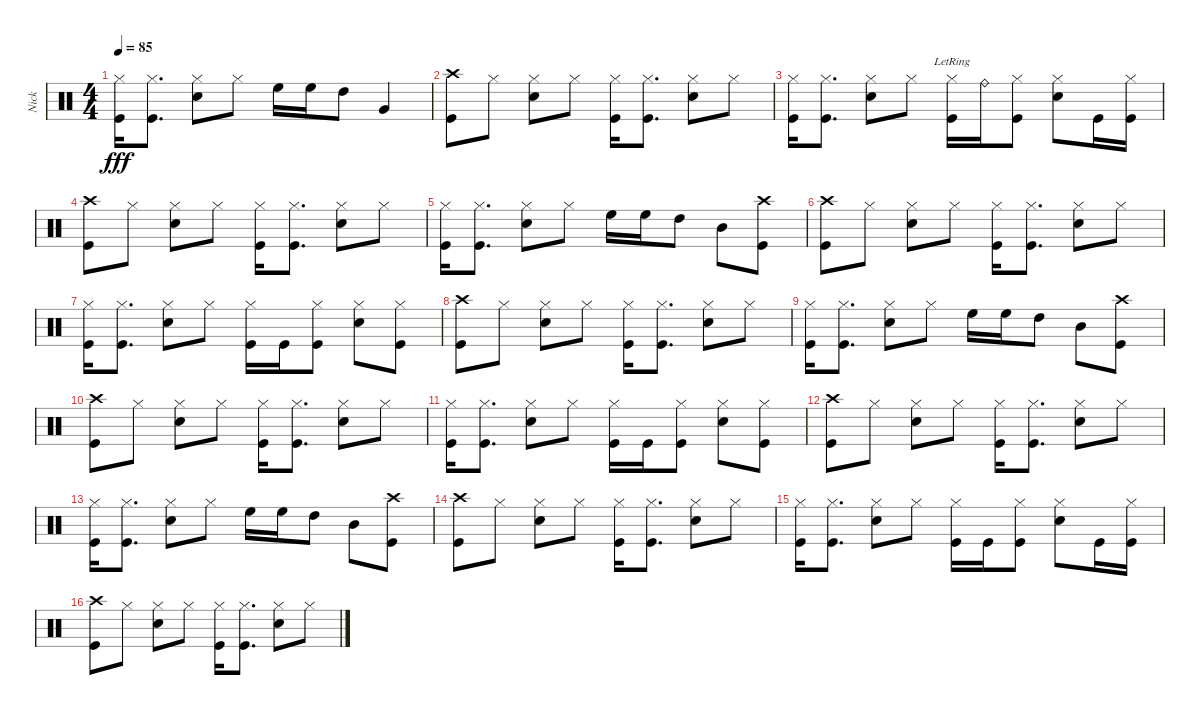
\track ("Nick" "Nick") {instrument percussion}
\staff {score}
\articulation defaults
\ts (4 4)
\tempo 85
\clef neutral
\ks c
("Kick (hit)" "Hi-Hat (closed)").16{dy fff} ("Kick (hit)" "Hi-Hat (closed)").8{d} ("Hi-Hat (closed)" "Snare (hit) 2").8 "Hi-Hat (closed)".8 "High Floor Tom (hit)".16 "High Floor Tom (hit)".16 "High Tom (hit)".8 "Very Low Tom (hit)".4 |
("Kick (hit)" "Crash high (hit)").8 "Hi-Hat (closed)".8 ("Hi-Hat (closed)" "Snare (hit) 2").8 "Hi-Hat (closed)".8 ("Kick (hit)" "Hi-Hat (closed)").16 ("Kick (hit)" "Hi-Hat (closed)").8{d} ("Hi-Hat (closed)" "Snare (hit) 2").8 "Hi-Hat (closed)".8 |
("Kick (hit)" "Hi-Hat (closed)").16 ("Kick (hit)" "Hi-Hat (closed)").8{d} ("Hi-Hat (closed)" "Snare (hit) 2").8 "Hi-Hat (closed)".8 ("Kick (hit)" "Hi-Hat (closed)"{lr}).16 "Ride (bell)".16 ("Kick (hit)" "Hi-Hat (closed)").8 ("Hi-Hat (closed)" "Snare (hit) 2").8 "Kick (hit)".16 ("Kick (hit)" "Hi-Hat (closed)").16 |
("Kick (hit)" "Crash high (hit)").8 "Hi-Hat (closed)".8 ("Hi-Hat (closed)" "Snare (hit) 2").8 "Hi-Hat (closed)".8 ("Kick (hit)" "Hi-Hat (closed)").16 ("Kick (hit)" "Hi-Hat (closed)").8{d} ("Hi-Hat (closed)" "Snare (hit) 2").8 "Hi-Hat (closed)".8 |
("Kick (hit)" "Hi-Hat (closed)").16 ("Kick (hit)" "Hi-Hat (closed)").8{d} ("Hi-Hat (closed)" "Snare (hit) 2").8 "Hi-Hat (closed)".8 "High Floor Tom (hit)".16 "High Floor Tom (hit)".16 "High Tom (hit)".8 "Mid Tom (hit)".8 ("Kick (hit)" "Crash high (hit)").8 |
("Kick (hit)" "Crash high (hit)").8 "Hi-Hat (closed)".8 ("Hi-Hat (closed)" "Snare (hit) 2").8 "Hi-Hat (closed)".8 ("Kick (hit)" "Hi-Hat (closed)").16 ("Kick (hit)" "Hi-Hat (closed)").8{d} ("Hi-Hat (closed)" "Snare (hit) 2").8 "Hi-Hat (closed)".8 |
("Kick (hit)" "Hi-Hat (closed)").16 ("Kick (hit)" "Hi-Hat (closed)").8{d} ("Hi-Hat (closed)" "Snare (hit) 2").8 "Hi-Hat (closed)".8 ("Kick (hit)" "Hi-Hat (closed)").16 "Kick (hit)".16 ("Kick (hit)" "Hi-Hat (closed)").8 ("Hi-Hat (closed)" "Snare (hit) 2").8 ("Kick (hit)" "Hi-Hat (closed)").8 |
("Kick (hit)" "Crash high (hit)").8 "Hi-Hat (closed)".8 ("Hi-Hat (closed)" "Snare (hit) 2").8 "Hi-Hat (closed)".8 ("Kick (hit)" "Hi-Hat (closed)").16 ("Kick (hit)" "Hi-Hat (closed)").8{d} ("Hi-Hat (closed)" "Snare (hit) 2").8 "Hi-Hat (closed)".8 |
("Kick (hit)" "Hi-Hat (closed)").16 ("Kick (hit)" "Hi-Hat (closed)").8{d} ("Hi-Hat (closed)" "Snare (hit) 2").8 "Hi-Hat (closed)".8 "High Floor Tom (hit)".16 "High Floor Tom (hit)".16 "High Tom (hit)".8 "Mid Tom (hit)".8 ("Kick (hit)" "Crash high (hit)").8 |
("Kick (hit)" "Crash high (hit)").8 "Hi-Hat (closed)".8 ("Hi-Hat (closed)" "Snare (hit) 2").8 "Hi-Hat (closed)".8 ("Kick (hit)" "Hi-Hat (closed)").16 ("Kick (hit)" "Hi-Hat (closed)").8{d} ("Hi-Hat (closed)" "Snare (hit) 2").8 "Hi-Hat (closed)".8 |
("Kick (hit)" "Hi-Hat (closed)").16 ("Kick (hit)" "Hi-Hat (closed)").8{d} ("Hi-Hat (closed)" "Snare (hit) 2").8 "Hi-Hat (closed)".8 ("Kick (hit)" "Hi-Hat (closed)").16 "Kick (hit)".16 ("Kick (hit)" "Hi-Hat (closed)").8 ("Hi-Hat (closed)" "Snare (hit) 2").8 ("Kick (hit)" "Hi-Hat (closed)").8 |
("Kick (hit)" "Crash high (hit)").8 "Hi-Hat (closed)".8 ("Hi-Hat (closed)" "Snare (hit) 2").8 "Hi-Hat (closed)".8 ("Kick (hit)" "Hi-Hat (closed)").16 ("Kick (hit)" "Hi-Hat (closed)").8{d} ("Hi-Hat (closed)" "Snare (hit) 2").8 "Hi-Hat (closed)".8 |
("Kick (hit)" "Hi-Hat (closed)").16 ("Kick (hit)" "Hi-Hat (closed)").8{d} ("Hi-Hat (closed)" "Snare (hit) 2").8 "Hi-Hat (closed)".8 "High Floor Tom (hit)".16 "High Floor Tom (hit)".16 "High Tom (hit)".8 "Mid Tom (hit)".8 ("Kick (hit)" "Crash high (hit)").8 |
("Kick (hit)" "Crash high (hit)").8 "Hi-Hat (closed)".8 ("Hi-Hat (closed)" "Snare (hit) 2").8 "Hi-Hat (closed)".8 ("Kick (hit)" "Hi-Hat (closed)").16 ("Kick (hit)" "Hi-Hat (closed)").8{d} ("Hi-Hat (closed)" "Snare (hit) 2").8 "Hi-Hat (closed)".8 |
("Kick (hit)" "Hi-Hat (closed)").16 ("Kick (hit)" "Hi-Hat (closed)").8{d} ("Hi-Hat (closed)" "Snare (hit) 2").8 "Hi-Hat (closed)".8 ("Kick (hit)" "Hi-Hat (closed)").16 "Kick (hit)".16 ("Kick (hit)" "Hi-Hat (closed)").8 ("Hi-Hat (closed)" "Snare (hit) 2").8 "Kick (hit)".16 ("Kick (hit)" "Hi-Hat (closed)").16 |
("Kick (hit)" "Crash high (hit)").8 "Hi-Hat (closed)".8 ("Hi-Hat (closed)" "Snare (hit) 2").8 "Hi-Hat (closed)".8 ("Kick (hit)" "Hi-Hat (closed)").16 ("Kick (hit)" "Hi-Hat (closed)").8{d} ("Hi-Hat (closed)" "Snare (hit) 2").8 "Hi-Hat (closed)".8
